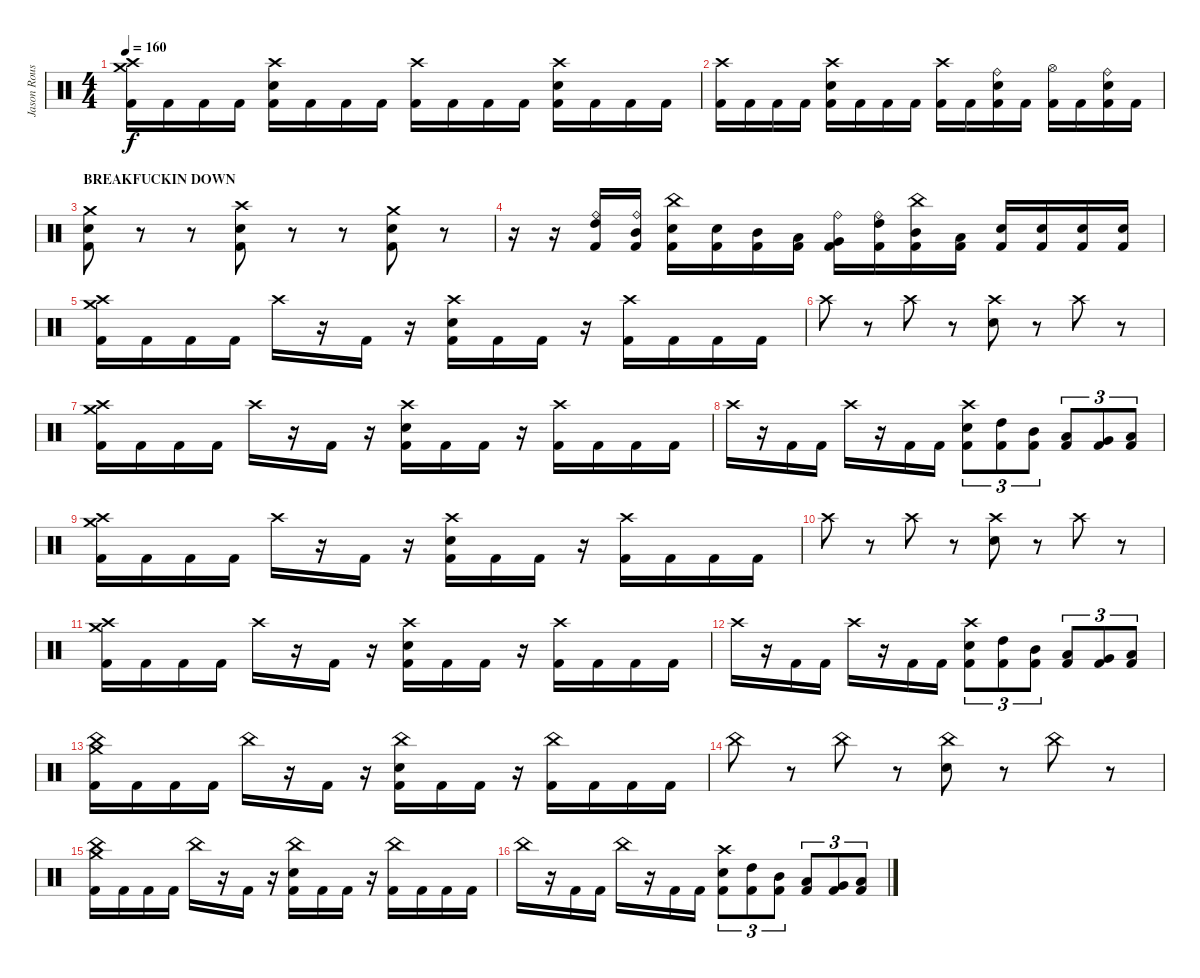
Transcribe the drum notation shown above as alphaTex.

\track ("Jason Rousseau" "Jason Rous") {instrument percussion}
\staff {score}
\articulation defaults
\ts (4 4)
\tempo 160
\clef neutral
\ks c
("Crash high (hit)" "Crash medium (hit)" "Kick (hit) 2").16{dy f} "Kick (hit) 2".16 "Kick (hit) 2".16 "Kick (hit) 2".16 ("Crash high (hit)" "Electric Snare (hit)" "Kick (hit) 2").16 "Kick (hit) 2".16 "Kick (hit) 2".16 "Kick (hit) 2".16 ("Crash high (hit)" "Kick (hit) 2").16 "Kick (hit) 2".16 "Kick (hit) 2".16 "Kick (hit) 2".16 ("Crash high (hit)" "Electric Snare (hit)" "Kick (hit) 2").16 "Kick (hit) 2".16 "Kick (hit) 2".16 "Kick (hit) 2".16 |
("Crash high (hit)" "Kick (hit) 2").16 "Kick (hit) 2".16 "Kick (hit) 2".16 "Kick (hit) 2".16 ("Crash high (hit)" "Electric Snare (hit)" "Kick (hit) 2").16 "Kick (hit) 2".16 "Kick (hit) 2".16 "Kick (hit) 2".16 ("Crash high (hit)" "Kick (hit) 2").16 "Kick (hit) 2".16 ("Ride (bell)" "Electric Snare (hit)" "Kick (hit) 2").16 "Kick (hit) 2".16 ("Hi-Hat (open)" "Kick (hit) 2").16 "Kick (hit) 2".16 ("Ride (bell)" "Electric Snare (hit)" "Kick (hit) 2").16 "Kick (hit) 2".16 |
\section ("" "BREAKFUCKIN DOWN")
("Crash medium (hit)" "Electric Snare (hit)" "Kick (hit) 2").8 r.8 r.8 ("Crash high (hit)" "Electric Snare (hit)" "Kick (hit) 2").8 r.8 r.8 ("Crash medium (hit)" "Electric Snare (hit)" "Kick (hit) 2").8 r.8 |
r.16 r.16 ("Ride (bell)" "High Tom (hit)" "Kick (hit) 2").16 ("Ride (bell)" "Mid Tom (hit)" "Kick (hit) 2").16 ("China (hit)" "Electric Snare (hit)" "Kick (hit) 2").16 ("Electric Snare (hit)" "Kick (hit) 2").16 ("Mid Tom (hit)" "Kick (hit) 2").16 ("Low Tom (hit)" "Kick (hit) 2").16 ("Ride (bell)" "Very Low Tom (hit)" "Kick (hit) 2").16 ("Ride (bell)" "High Tom (hit)" "Kick (hit) 2").16 ("China (hit)" "Mid Tom (hit)" "Kick (hit) 2").16 ("Low Tom (hit)" "Kick (hit) 2").16 ("Electric Snare (hit)" "Kick (hit) 2").16 ("Electric Snare (hit)" "Kick (hit) 2").16 ("Electric Snare (hit)" "Kick (hit) 2").16 ("Electric Snare (hit)" "Kick (hit) 2").16 |
("Crash medium (hit)" "Crash high (hit)" "Kick (hit) 2").16 "Kick (hit) 2".16 "Kick (hit) 2".16 "Kick (hit) 2".16 "Crash high (hit)".16 r.16 "Kick (hit) 2".16 r.16 ("Crash high (hit)" "Electric Snare (hit)" "Kick (hit) 2").16 "Kick (hit) 2".16 "Kick (hit) 2".16 r.16 ("Crash high (hit)" "Kick (hit) 2").16 "Kick (hit) 2".16 "Kick (hit) 2".16 "Kick (hit) 2".16 |
"Crash high (hit)".8 r.8 "Crash high (hit)".8 r.8 ("Crash high (hit)" "Electric Snare (hit)").8 r.8 "Crash high (hit)".8 r.8 |
("Crash medium (hit)" "Crash high (hit)" "Kick (hit) 2").16 "Kick (hit) 2".16 "Kick (hit) 2".16 "Kick (hit) 2".16 "Crash high (hit)".16 r.16 "Kick (hit) 2".16 r.16 ("Crash high (hit)" "Electric Snare (hit)" "Kick (hit) 2").16 "Kick (hit) 2".16 "Kick (hit) 2".16 r.16 ("Crash high (hit)" "Kick (hit) 2").16 "Kick (hit) 2".16 "Kick (hit) 2".16 "Kick (hit) 2".16 |
"Crash high (hit)".16 r.16 "Kick (hit) 2".16 "Kick (hit) 2".16 "Crash high (hit)".16 r.16 "Kick (hit) 2".16 "Kick (hit) 2".16 ("Crash high (hit)" "Electric Snare (hit)" "Kick (hit) 2").8{tu (3 2)} ("High Tom (hit)" "Kick (hit) 2").8{tu (3 2)} ("Mid Tom (hit)" "Kick (hit) 2").8{tu (3 2)} ("Low Tom (hit)" "Kick (hit) 2").8{tu (3 2)} ("Very Low Tom (hit)" "Kick (hit) 2").8{tu (3 2)} ("Low Floor Tom (hit)" "Kick (hit) 2").8{tu (3 2)} |
("Crash medium (hit)" "Crash high (hit)" "Kick (hit) 2").16 "Kick (hit) 2".16 "Kick (hit) 2".16 "Kick (hit) 2".16 "Crash high (hit)".16 r.16 "Kick (hit) 2".16 r.16 ("Crash high (hit)" "Electric Snare (hit)" "Kick (hit) 2").16 "Kick (hit) 2".16 "Kick (hit) 2".16 r.16 ("Crash high (hit)" "Kick (hit) 2").16 "Kick (hit) 2".16 "Kick (hit) 2".16 "Kick (hit) 2".16 |
"Crash high (hit)".8 r.8 "Crash high (hit)".8 r.8 ("Crash high (hit)" "Electric Snare (hit)").8 r.8 "Crash high (hit)".8 r.8 |
("Crash medium (hit)" "Crash high (hit)" "Kick (hit) 2").16 "Kick (hit) 2".16 "Kick (hit) 2".16 "Kick (hit) 2".16 "Crash high (hit)".16 r.16 "Kick (hit) 2".16 r.16 ("Crash high (hit)" "Electric Snare (hit)" "Kick (hit) 2").16 "Kick (hit) 2".16 "Kick (hit) 2".16 r.16 ("Crash high (hit)" "Kick (hit) 2").16 "Kick (hit) 2".16 "Kick (hit) 2".16 "Kick (hit) 2".16 |
"Crash high (hit)".16 r.16 "Kick (hit) 2".16 "Kick (hit) 2".16 "Crash high (hit)".16 r.16 "Kick (hit) 2".16 "Kick (hit) 2".16 ("Crash high (hit)" "Electric Snare (hit)" "Kick (hit) 2").8{tu (3 2)} ("High Tom (hit)" "Kick (hit) 2").8{tu (3 2)} ("Mid Tom (hit)" "Kick (hit) 2").8{tu (3 2)} ("Low Tom (hit)" "Kick (hit) 2").8{tu (3 2)} ("Very Low Tom (hit)" "Kick (hit) 2").8{tu (3 2)} ("Low Floor Tom (hit)" "Kick (hit) 2").8{tu (3 2)} |
("Crash medium (hit)" "China (hit)" "Kick (hit) 2").16 "Kick (hit) 2".16 "Kick (hit) 2".16 "Kick (hit) 2".16 "China (hit)".16 r.16 "Kick (hit) 2".16 r.16 ("China (hit)" "Electric Snare (hit)" "Kick (hit) 2").16 "Kick (hit) 2".16 "Kick (hit) 2".16 r.16 ("China (hit)" "Kick (hit) 2").16 "Kick (hit) 2".16 "Kick (hit) 2".16 "Kick (hit) 2".16 |
"China (hit)".8 r.8 "China (hit)".8 r.8 ("China (hit)" "Electric Snare (hit)").8 r.8 "China (hit)".8 r.8 |
("Crash medium (hit)" "China (hit)" "Kick (hit) 2").16 "Kick (hit) 2".16 "Kick (hit) 2".16 "Kick (hit) 2".16 "China (hit)".16 r.16 "Kick (hit) 2".16 r.16 ("China (hit)" "Electric Snare (hit)" "Kick (hit) 2").16 "Kick (hit) 2".16 "Kick (hit) 2".16 r.16 ("China (hit)" "Kick (hit) 2").16 "Kick (hit) 2".16 "Kick (hit) 2".16 "Kick (hit) 2".16 |
"China (hit)".16 r.16 "Kick (hit) 2".16 "Kick (hit) 2".16 "China (hit)".16 r.16 "Kick (hit) 2".16 "Kick (hit) 2".16 ("Crash high (hit)" "Electric Snare (hit)" "Kick (hit) 2").8{tu (3 2)} ("High Tom (hit)" "Kick (hit) 2").8{tu (3 2)} ("Mid Tom (hit)" "Kick (hit) 2").8{tu (3 2)} ("Low Tom (hit)" "Kick (hit) 2").8{tu (3 2)} ("Very Low Tom (hit)" "Kick (hit) 2").8{tu (3 2)} ("Low Floor Tom (hit)" "Kick (hit) 2").8{tu (3 2)}
